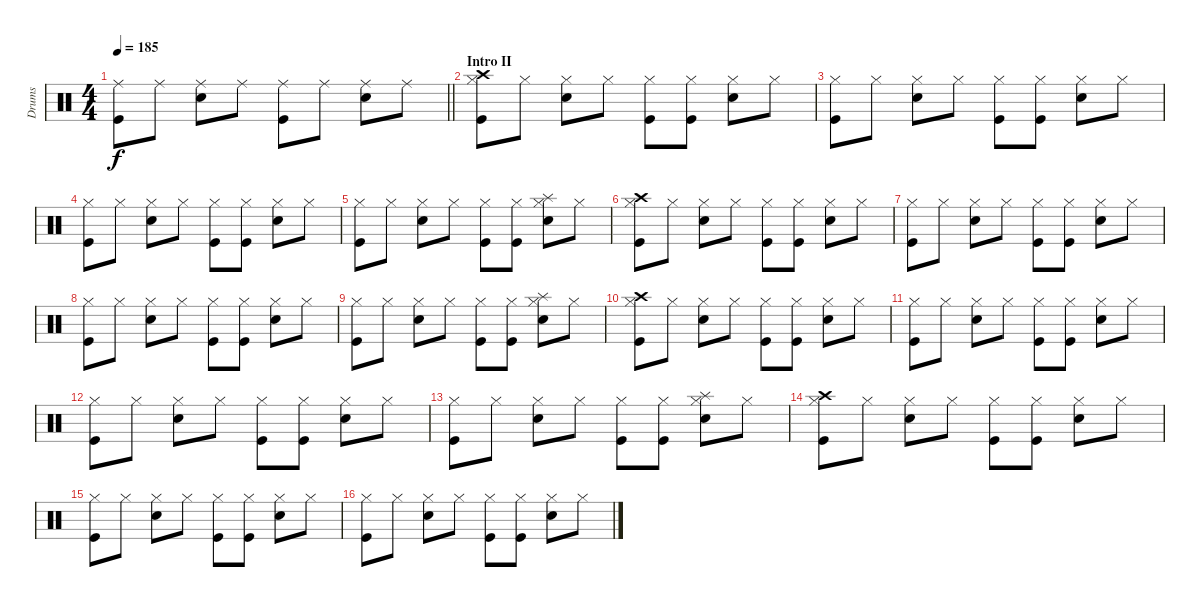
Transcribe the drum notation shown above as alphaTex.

\track ("Drums" "Drums") {instrument percussion}
\staff {score}
\articulation defaults
\ts (4 4)
\tempo 185
\clef neutral
\barLineRight lightlight
\ks c
("Ride (middle)" "Kick (hit)").8{dy f} "Ride (middle)".8 ("Ride (middle)" "Snare (hit) 2").8 "Ride (middle)".8 ("Ride (middle)" "Kick (hit)").8 "Ride (middle)".8 ("Ride (middle)" "Snare (hit) 2").8 "Ride (middle)".8 |
\section ("" "Intro II")
("Kick (hit)" "Crash high (hit)" "Hi-Hat (closed)").8 "Hi-Hat (closed)".8 ("Snare (hit) 2" "Hi-Hat (closed)").8 "Hi-Hat (closed)".8 ("Kick (hit)" "Hi-Hat (closed)").8 ("Kick (hit)" "Hi-Hat (closed)").8 ("Snare (hit) 2" "Hi-Hat (closed)").8 "Hi-Hat (closed)".8 |
("Kick (hit)" "Hi-Hat (closed)").8 "Hi-Hat (closed)".8 ("Snare (hit) 2" "Hi-Hat (closed)").8 "Hi-Hat (closed)".8 ("Kick (hit)" "Hi-Hat (closed)").8 ("Kick (hit)" "Hi-Hat (closed)").8 ("Snare (hit) 2" "Hi-Hat (closed)").8 "Hi-Hat (closed)".8 |
("Kick (hit)" "Hi-Hat (closed)").8 "Hi-Hat (closed)".8 ("Snare (hit) 2" "Hi-Hat (closed)").8 "Hi-Hat (closed)".8 ("Kick (hit)" "Hi-Hat (closed)").8 ("Kick (hit)" "Hi-Hat (closed)").8 ("Snare (hit) 2" "Hi-Hat (closed)").8 "Hi-Hat (closed)".8 |
("Kick (hit)" "Hi-Hat (closed)").8 "Hi-Hat (closed)".8 ("Snare (hit) 2" "Hi-Hat (closed)").8 "Hi-Hat (closed)".8 ("Kick (hit)" "Hi-Hat (closed)").8 ("Kick (hit)" "Hi-Hat (closed)").8 ("Snare (hit) 2" "Splash (hit)" "Hi-Hat (closed)").8 "Hi-Hat (closed)".8 |
("Kick (hit)" "Crash high (hit)" "Hi-Hat (closed)").8 "Hi-Hat (closed)".8 ("Snare (hit) 2" "Hi-Hat (closed)").8 "Hi-Hat (closed)".8 ("Kick (hit)" "Hi-Hat (closed)").8 ("Kick (hit)" "Hi-Hat (closed)").8 ("Snare (hit) 2" "Hi-Hat (closed)").8 "Hi-Hat (closed)".8 |
("Kick (hit)" "Hi-Hat (closed)").8 "Hi-Hat (closed)".8 ("Snare (hit) 2" "Hi-Hat (closed)").8 "Hi-Hat (closed)".8 ("Kick (hit)" "Hi-Hat (closed)").8 ("Kick (hit)" "Hi-Hat (closed)").8 ("Snare (hit) 2" "Hi-Hat (closed)").8 "Hi-Hat (closed)".8 |
("Kick (hit)" "Hi-Hat (closed)").8 "Hi-Hat (closed)".8 ("Snare (hit) 2" "Hi-Hat (closed)").8 "Hi-Hat (closed)".8 ("Kick (hit)" "Hi-Hat (closed)").8 ("Kick (hit)" "Hi-Hat (closed)").8 ("Snare (hit) 2" "Hi-Hat (closed)").8 "Hi-Hat (closed)".8 |
("Kick (hit)" "Hi-Hat (closed)").8 "Hi-Hat (closed)".8 ("Snare (hit) 2" "Hi-Hat (closed)").8 "Hi-Hat (closed)".8 ("Kick (hit)" "Hi-Hat (closed)").8 ("Kick (hit)" "Hi-Hat (closed)").8 ("Snare (hit) 2" "Splash (hit)" "Hi-Hat (closed)").8 "Hi-Hat (closed)".8 |
("Kick (hit)" "Crash high (hit)" "Hi-Hat (closed)").8 "Hi-Hat (closed)".8 ("Snare (hit) 2" "Hi-Hat (closed)").8 "Hi-Hat (closed)".8 ("Kick (hit)" "Hi-Hat (closed)").8 ("Kick (hit)" "Hi-Hat (closed)").8 ("Snare (hit) 2" "Hi-Hat (closed)").8 "Hi-Hat (closed)".8 |
("Kick (hit)" "Hi-Hat (closed)").8 "Hi-Hat (closed)".8 ("Snare (hit) 2" "Hi-Hat (closed)").8 "Hi-Hat (closed)".8 ("Kick (hit)" "Hi-Hat (closed)").8 ("Kick (hit)" "Hi-Hat (closed)").8 ("Snare (hit) 2" "Hi-Hat (closed)").8 "Hi-Hat (closed)".8 |
("Kick (hit)" "Hi-Hat (closed)").8 "Hi-Hat (closed)".8 ("Snare (hit) 2" "Hi-Hat (closed)").8 "Hi-Hat (closed)".8 ("Kick (hit)" "Hi-Hat (closed)").8 ("Kick (hit)" "Hi-Hat (closed)").8 ("Snare (hit) 2" "Hi-Hat (closed)").8 "Hi-Hat (closed)".8 |
("Kick (hit)" "Hi-Hat (closed)").8 "Hi-Hat (closed)".8 ("Snare (hit) 2" "Hi-Hat (closed)").8 "Hi-Hat (closed)".8 ("Kick (hit)" "Hi-Hat (closed)").8 ("Kick (hit)" "Hi-Hat (closed)").8 ("Snare (hit) 2" "Splash (hit)" "Hi-Hat (closed)").8 "Hi-Hat (closed)".8 |
("Kick (hit)" "Crash high (hit)" "Hi-Hat (closed)").8 "Hi-Hat (closed)".8 ("Snare (hit) 2" "Hi-Hat (closed)").8 "Hi-Hat (closed)".8 ("Kick (hit)" "Hi-Hat (closed)").8 ("Kick (hit)" "Hi-Hat (closed)").8 ("Snare (hit) 2" "Hi-Hat (closed)").8 "Hi-Hat (closed)".8 |
("Kick (hit)" "Hi-Hat (closed)").8 "Hi-Hat (closed)".8 ("Snare (hit) 2" "Hi-Hat (closed)").8 "Hi-Hat (closed)".8 ("Kick (hit)" "Hi-Hat (closed)").8 ("Kick (hit)" "Hi-Hat (closed)").8 ("Snare (hit) 2" "Hi-Hat (closed)").8 "Hi-Hat (closed)".8 |
("Kick (hit)" "Hi-Hat (closed)").8 "Hi-Hat (closed)".8 ("Snare (hit) 2" "Hi-Hat (closed)").8 "Hi-Hat (closed)".8 ("Kick (hit)" "Hi-Hat (closed)").8 ("Kick (hit)" "Hi-Hat (closed)").8 ("Snare (hit) 2" "Hi-Hat (closed)").8 "Hi-Hat (closed)".8
